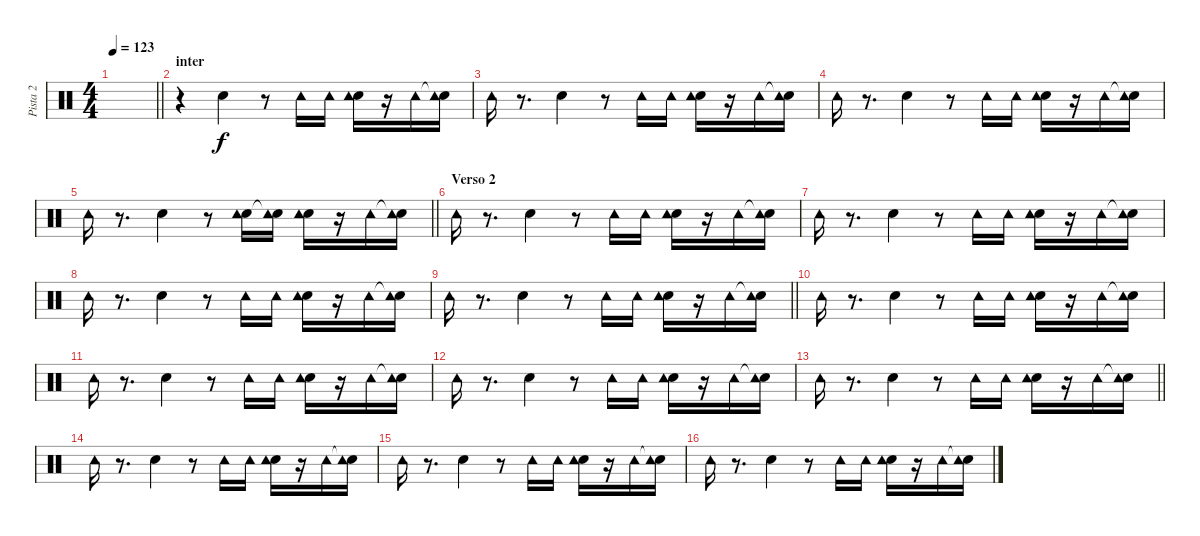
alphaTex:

\track ("Pista 2" "Pista 2") {instrument percussion}
\staff {score}
\articulation defaults
\ts (4 4)
\tempo 123
\clef neutral
\barLineRight lightlight
\ks c
|
\section ("" "inter")
r.4 "Hand Clap (hit)".4 r.8 "Tambourine (hit)".16 "Tambourine (hit)".16 ("Hand Clap (hit)" "Tambourine (hit)").16 r.16 "Tambourine (hit)".16 ("Snare (hit)"{t} "Tambourine (hit)").16 |
"Tambourine (hit)".16 r.8{d} "Hand Clap (hit)".4 r.8 "Tambourine (hit)".16 "Tambourine (hit)".16 ("Hand Clap (hit)" "Tambourine (hit)").16 r.16 "Tambourine (hit)".16 ("Snare (hit)"{t} "Tambourine (hit)").16 |
"Tambourine (hit)".16 r.8{d} "Hand Clap (hit)".4 r.8 "Tambourine (hit)".16 "Tambourine (hit)".16 ("Hand Clap (hit)" "Tambourine (hit)").16 r.16 "Tambourine (hit)".16 ("Snare (hit)"{t} "Tambourine (hit)").16 |
\barLineRight lightlight "Tambourine (hit)".16
r.8{d} "Hand Clap (hit)".4 r.8 ("Hand Clap (hit)" "Tambourine (hit)").16 ("Snare (hit)"{t} "Tambourine (hit)").16 ("Hand Clap (hit)" "Tambourine (hit)").16 r.16 "Tambourine (hit)".16 ("Snare (hit)"{t} "Tambourine (hit)").16 |
\section ("" "Verso 2")
"Tambourine (hit)".16 r.8{d} "Hand Clap (hit)".4 r.8 "Tambourine (hit)".16 "Tambourine (hit)".16 ("Hand Clap (hit)" "Tambourine (hit)").16 r.16 "Tambourine (hit)".16 ("Snare (hit)"{t} "Tambourine (hit)").16 |
"Tambourine (hit)".16 r.8{d} "Hand Clap (hit)".4 r.8 "Tambourine (hit)".16 "Tambourine (hit)".16 ("Hand Clap (hit)" "Tambourine (hit)").16 r.16 "Tambourine (hit)".16 ("Snare (hit)"{t} "Tambourine (hit)").16 |
"Tambourine (hit)".16 r.8{d} "Hand Clap (hit)".4 r.8 "Tambourine (hit)".16 "Tambourine (hit)".16 ("Hand Clap (hit)" "Tambourine (hit)").16 r.16 "Tambourine (hit)".16 ("Snare (hit)"{t} "Tambourine (hit)").16 |
\barLineRight lightlight "Tambourine (hit)".16
r.8{d} "Hand Clap (hit)".4 r.8 "Tambourine (hit)".16 "Tambourine (hit)".16 ("Hand Clap (hit)" "Tambourine (hit)").16 r.16 "Tambourine (hit)".16 ("Snare (hit)"{t} "Tambourine (hit)").16 |
"Tambourine (hit)".16 r.8{d} "Hand Clap (hit)".4 r.8 "Tambourine (hit)".16 "Tambourine (hit)".16 ("Hand Clap (hit)" "Tambourine (hit)").16 r.16 "Tambourine (hit)".16 ("Snare (hit)"{t} "Tambourine (hit)").16 |
"Tambourine (hit)".16 r.8{d} "Hand Clap (hit)".4 r.8 "Tambourine (hit)".16 "Tambourine (hit)".16 ("Hand Clap (hit)" "Tambourine (hit)").16 r.16 "Tambourine (hit)".16 ("Snare (hit)"{t} "Tambourine (hit)").16 |
"Tambourine (hit)".16 r.8{d} "Hand Clap (hit)".4 r.8 "Tambourine (hit)".16 "Tambourine (hit)".16 ("Hand Clap (hit)" "Tambourine (hit)").16 r.16 "Tambourine (hit)".16 ("Snare (hit)"{t} "Tambourine (hit)").16 |
\barLineRight lightlight "Tambourine (hit)".16
r.8{d} "Hand Clap (hit)".4 r.8 "Tambourine (hit)".16 "Tambourine (hit)".16 ("Hand Clap (hit)" "Tambourine (hit)").16 r.16 "Tambourine (hit)".16 ("Snare (hit)"{t} "Tambourine (hit)").16 |
"Tambourine (hit)".16 r.8{d} "Hand Clap (hit)".4 r.8 "Tambourine (hit)".16 "Tambourine (hit)".16 ("Hand Clap (hit)" "Tambourine (hit)").16 r.16 "Tambourine (hit)".16 ("Snare (hit)"{t} "Tambourine (hit)").16 |
"Tambourine (hit)".16 r.8{d} "Hand Clap (hit)".4 r.8 "Tambourine (hit)".16 "Tambourine (hit)".16 ("Hand Clap (hit)" "Tambourine (hit)").16 r.16 "Tambourine (hit)".16 ("Snare (hit)"{t} "Tambourine (hit)").16 |
"Tambourine (hit)".16 r.8{d} "Hand Clap (hit)".4 r.8 "Tambourine (hit)".16 "Tambourine (hit)".16 ("Hand Clap (hit)" "Tambourine (hit)").16 r.16 "Tambourine (hit)".16 ("Snare (hit)"{t} "Tambourine (hit)").16
